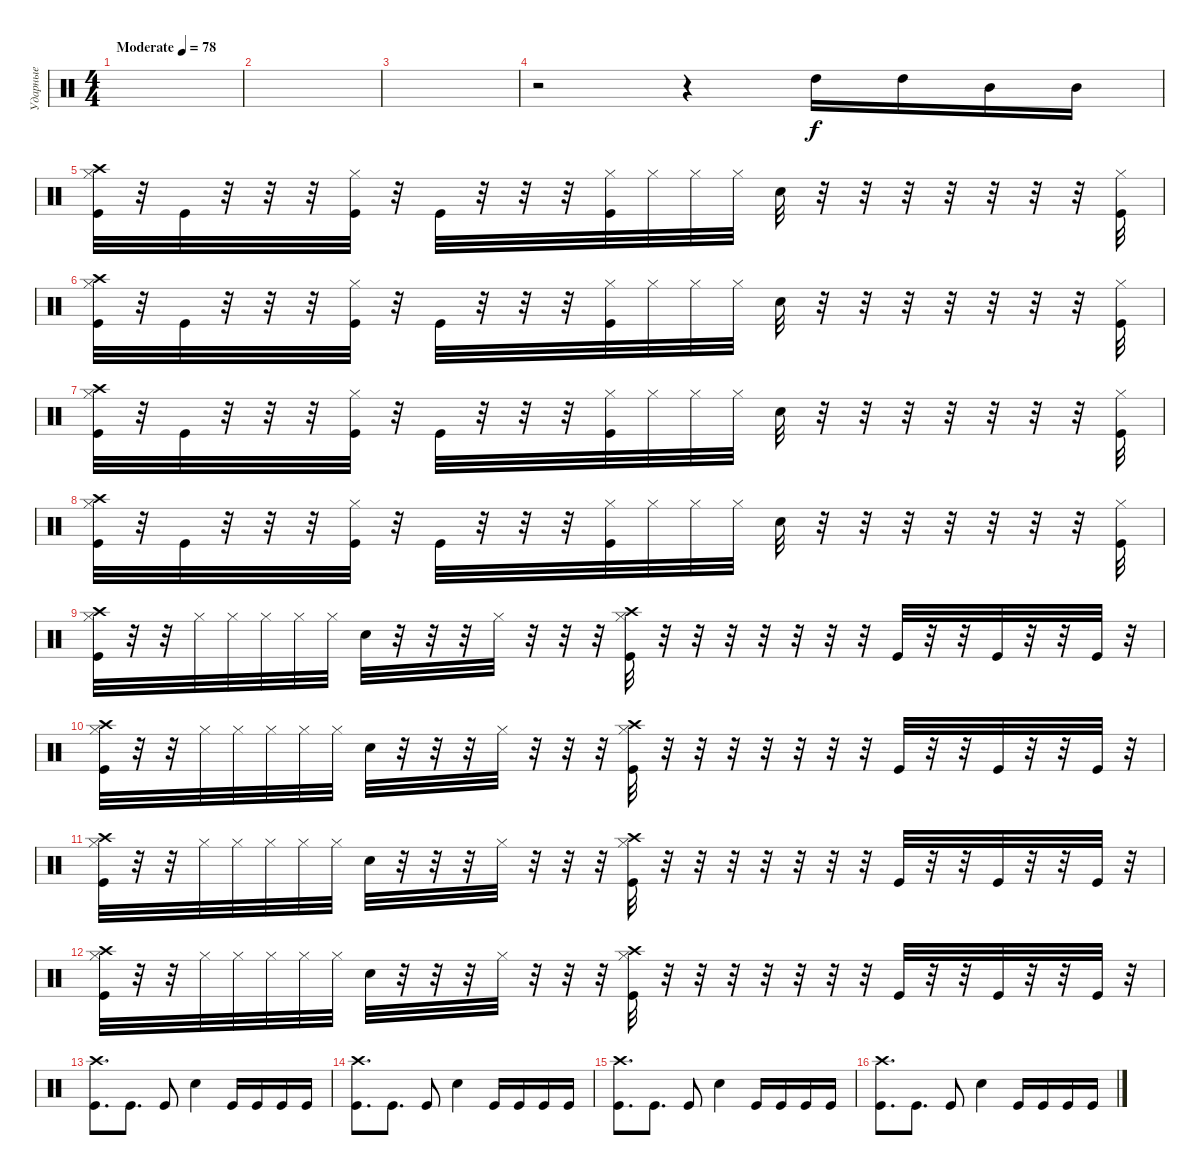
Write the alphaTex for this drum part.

\track ("Ударные" "Ударные") {instrument percussion}
\staff {score}
\articulation defaults
\ts (4 4)
\tempo (78 "Moderate")
\clef neutral
\ks c
|
|
|
r.2 r.4 "High Tom (hit)".16 "High Tom (hit)".16 "Mid Tom (hit)".16 "Mid Tom (hit)".16 |
("Crash high (hit)" "Hi-Hat (closed)" "Kick (hit)").32 r.32 "Kick (hit)".32 r.32 r.32 r.32 ("Hi-Hat (closed)" "Kick (hit)").32 r.32 "Kick (hit)".32 r.32 r.32 r.32 ("Hi-Hat (closed)" "Kick (hit)").32 "Hi-Hat (closed)".32 "Hi-Hat (closed)".32 "Hi-Hat (closed)".32 "Electric Snare (hit)".32 r.32 r.32 r.32 r.32 r.32 r.32 r.32 ("Hi-Hat (closed)" "Kick (hit)").32 |
("Crash high (hit)" "Hi-Hat (closed)" "Kick (hit)").32 r.32 "Kick (hit)".32 r.32 r.32 r.32 ("Hi-Hat (closed)" "Kick (hit)").32 r.32 "Kick (hit)".32 r.32 r.32 r.32 ("Hi-Hat (closed)" "Kick (hit)").32 "Hi-Hat (closed)".32 "Hi-Hat (closed)".32 "Hi-Hat (closed)".32 "Electric Snare (hit)".32 r.32 r.32 r.32 r.32 r.32 r.32 r.32 ("Hi-Hat (closed)" "Kick (hit)").32 |
("Crash high (hit)" "Hi-Hat (closed)" "Kick (hit)").32 r.32 "Kick (hit)".32 r.32 r.32 r.32 ("Hi-Hat (closed)" "Kick (hit)").32 r.32 "Kick (hit)".32 r.32 r.32 r.32 ("Hi-Hat (closed)" "Kick (hit)").32 "Hi-Hat (closed)".32 "Hi-Hat (closed)".32 "Hi-Hat (closed)".32 "Electric Snare (hit)".32 r.32 r.32 r.32 r.32 r.32 r.32 r.32 ("Hi-Hat (closed)" "Kick (hit)").32 |
("Crash high (hit)" "Hi-Hat (closed)" "Kick (hit)").32 r.32 "Kick (hit)".32 r.32 r.32 r.32 ("Hi-Hat (closed)" "Kick (hit)").32 r.32 "Kick (hit)".32 r.32 r.32 r.32 ("Hi-Hat (closed)" "Kick (hit)").32 "Hi-Hat (closed)".32 "Hi-Hat (closed)".32 "Hi-Hat (closed)".32 "Electric Snare (hit)".32 r.32 r.32 r.32 r.32 r.32 r.32 r.32 ("Hi-Hat (closed)" "Kick (hit)").32 |
("Crash high (hit)" "Hi-Hat (closed)" "Kick (hit)").32 r.32 r.32 "Hi-Hat (closed)".32 "Hi-Hat (closed)".32 "Hi-Hat (closed)".32 "Hi-Hat (closed)".32 "Hi-Hat (closed)".32 "Electric Snare (hit)".32 r.32 r.32 r.32 "Hi-Hat (closed)".32 r.32 r.32 r.32 ("Hi-Hat (closed)" "Crash high (hit)" "Kick (hit)").32 r.32 r.32 r.32 r.32 r.32 r.32 r.32 "Kick (hit)".32 r.32 r.32 "Kick (hit)".32 r.32 r.32 "Kick (hit)".32 r.32 |
("Crash high (hit)" "Hi-Hat (closed)" "Kick (hit)").32 r.32 r.32 "Hi-Hat (closed)".32 "Hi-Hat (closed)".32 "Hi-Hat (closed)".32 "Hi-Hat (closed)".32 "Hi-Hat (closed)".32 "Electric Snare (hit)".32 r.32 r.32 r.32 "Hi-Hat (closed)".32 r.32 r.32 r.32 ("Hi-Hat (closed)" "Crash high (hit)" "Kick (hit)").32 r.32 r.32 r.32 r.32 r.32 r.32 r.32 "Kick (hit)".32 r.32 r.32 "Kick (hit)".32 r.32 r.32 "Kick (hit)".32 r.32 |
("Crash high (hit)" "Hi-Hat (closed)" "Kick (hit)").32 r.32 r.32 "Hi-Hat (closed)".32 "Hi-Hat (closed)".32 "Hi-Hat (closed)".32 "Hi-Hat (closed)".32 "Hi-Hat (closed)".32 "Electric Snare (hit)".32 r.32 r.32 r.32 "Hi-Hat (closed)".32 r.32 r.32 r.32 ("Hi-Hat (closed)" "Crash high (hit)" "Kick (hit)").32 r.32 r.32 r.32 r.32 r.32 r.32 r.32 "Kick (hit)".32 r.32 r.32 "Kick (hit)".32 r.32 r.32 "Kick (hit)".32 r.32 |
("Crash high (hit)" "Hi-Hat (closed)" "Kick (hit)").32 r.32 r.32 "Hi-Hat (closed)".32 "Hi-Hat (closed)".32 "Hi-Hat (closed)".32 "Hi-Hat (closed)".32 "Hi-Hat (closed)".32 "Electric Snare (hit)".32 r.32 r.32 r.32 "Hi-Hat (closed)".32 r.32 r.32 r.32 ("Hi-Hat (closed)" "Crash high (hit)" "Kick (hit)").32 r.32 r.32 r.32 r.32 r.32 r.32 r.32 "Kick (hit)".32 r.32 r.32 "Kick (hit)".32 r.32 r.32 "Kick (hit)".32 r.32 |
("Crash high (hit)" "Kick (hit)").8{d} "Kick (hit)".8{d} "Kick (hit)".8 "Electric Snare (hit)".4 "Kick (hit)".16 "Kick (hit)".16 "Kick (hit)".16 "Kick (hit)".16 |
("Crash high (hit)" "Kick (hit)").8{d} "Kick (hit)".8{d} "Kick (hit)".8 "Electric Snare (hit)".4 "Kick (hit)".16 "Kick (hit)".16 "Kick (hit)".16 "Kick (hit)".16 |
("Crash high (hit)" "Kick (hit)").8{d} "Kick (hit)".8{d} "Kick (hit)".8 "Electric Snare (hit)".4 "Kick (hit)".16 "Kick (hit)".16 "Kick (hit)".16 "Kick (hit)".16 |
("Crash high (hit)" "Kick (hit)").8{d} "Kick (hit)".8{d} "Kick (hit)".8 "Electric Snare (hit)".4 "Kick (hit)".16 "Kick (hit)".16 "Kick (hit)".16 "Kick (hit)".16
